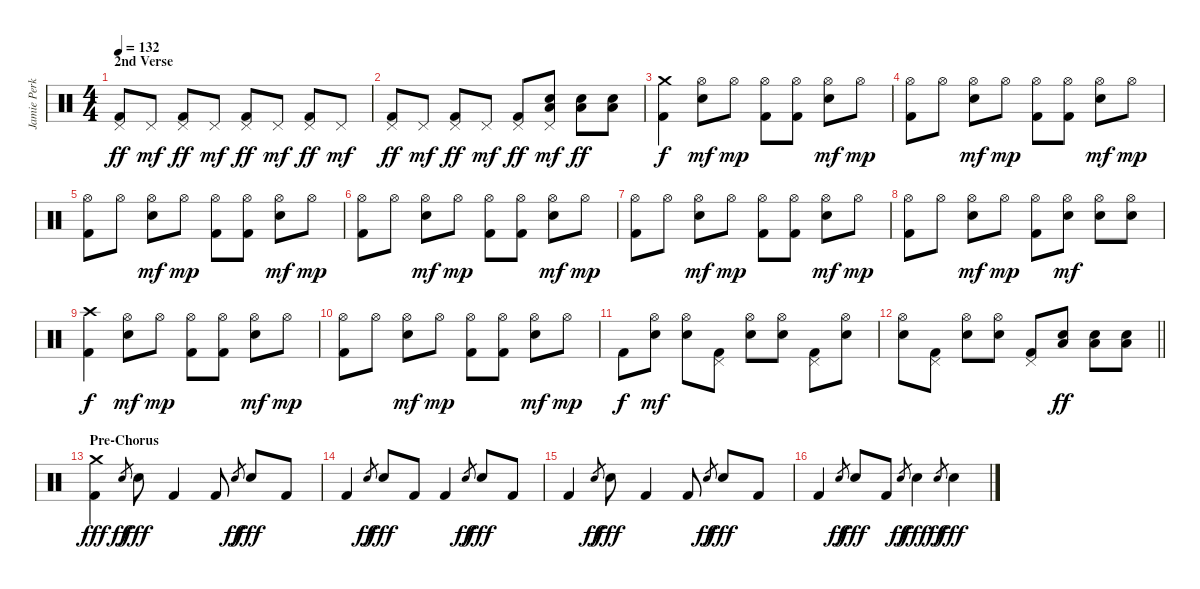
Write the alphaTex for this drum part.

\track ("Jamie Perkins" "Jamie Perk") {instrument percussion}
\staff {score}
\articulation defaults
\ts (4 4)
\section ("" "2nd Verse")
\tempo 132
\clef neutral
\ks c
("Pedal Hi-Hat (hit)" "Kick (hit) 2").8{dy ff} "Pedal Hi-Hat (hit)".8{dy mf} ("Pedal Hi-Hat (hit)" "Kick (hit) 2").8{dy ff} "Pedal Hi-Hat (hit)".8{dy mf} ("Pedal Hi-Hat (hit)" "Kick (hit) 2").8{dy ff} "Pedal Hi-Hat (hit)".8{dy mf} ("Pedal Hi-Hat (hit)" "Kick (hit) 2").8{dy ff} "Pedal Hi-Hat (hit)".8{dy mf} |
("Pedal Hi-Hat (hit)" "Kick (hit) 2").8{dy ff} "Pedal Hi-Hat (hit)".8{dy mf} ("Pedal Hi-Hat (hit)" "Kick (hit) 2").8{dy ff} "Pedal Hi-Hat (hit)".8{dy mf} ("Pedal Hi-Hat (hit)" "Kick (hit) 2").8{dy ff} ("Low Tom (hit)" "Snare (hit) 2" "Pedal Hi-Hat (hit)").8{dy mf} ("Low Tom (hit)" "Snare (hit) 2").8{dy ff} ("Low Tom (hit)" "Snare (hit) 2").8 |
("Crash medium (hit)" "Kick (hit) 2").4{dy f} ("Hi-Hat (open)" "Snare (hit) 2").8{dy mf} "Hi-Hat (open)".8{dy mp} ("Hi-Hat (open)" "Kick (hit) 2").8 ("Hi-Hat (open)" "Kick (hit) 2").8 ("Hi-Hat (open)" "Snare (hit) 2").8{dy mf} "Hi-Hat (open)".8{dy mp} |
("Hi-Hat (open)" "Kick (hit) 2").8 "Hi-Hat (open)".8 ("Hi-Hat (open)" "Snare (hit) 2").8{dy mf} "Hi-Hat (open)".8{dy mp} ("Hi-Hat (open)" "Kick (hit) 2").8 ("Hi-Hat (open)" "Kick (hit) 2").8 ("Hi-Hat (open)" "Snare (hit) 2").8{dy mf} "Hi-Hat (open)".8{dy mp} |
("Hi-Hat (open)" "Kick (hit) 2").8 "Hi-Hat (open)".8 ("Hi-Hat (open)" "Snare (hit) 2").8{dy mf} "Hi-Hat (open)".8{dy mp} ("Hi-Hat (open)" "Kick (hit) 2").8 ("Hi-Hat (open)" "Kick (hit) 2").8 ("Hi-Hat (open)" "Snare (hit) 2").8{dy mf} "Hi-Hat (open)".8{dy mp} |
("Hi-Hat (open)" "Kick (hit) 2").8 "Hi-Hat (open)".8 ("Hi-Hat (open)" "Snare (hit) 2").8{dy mf} "Hi-Hat (open)".8{dy mp} ("Hi-Hat (open)" "Kick (hit) 2").8 ("Hi-Hat (open)" "Kick (hit) 2").8 ("Hi-Hat (open)" "Snare (hit) 2").8{dy mf} "Hi-Hat (open)".8{dy mp} |
("Hi-Hat (open)" "Kick (hit) 2").8 "Hi-Hat (open)".8 ("Hi-Hat (open)" "Snare (hit) 2").8{dy mf} "Hi-Hat (open)".8{dy mp} ("Hi-Hat (open)" "Kick (hit) 2").8 ("Hi-Hat (open)" "Kick (hit) 2").8 ("Hi-Hat (open)" "Snare (hit) 2").8{dy mf} "Hi-Hat (open)".8{dy mp} |
("Hi-Hat (open)" "Kick (hit) 2").8 "Hi-Hat (open)".8 ("Hi-Hat (open)" "Snare (hit) 2").8{dy mf} "Hi-Hat (open)".8{dy mp} ("Hi-Hat (open)" "Kick (hit) 2").8 ("Hi-Hat (open)" "Snare (hit) 2").8{dy mf} ("Hi-Hat (open)" "Snare (hit) 2").8 ("Hi-Hat (open)" "Snare (hit) 2").8 |
("Crash high (hit)" "Kick (hit) 2").4{dy f} ("Hi-Hat (open)" "Snare (hit) 2").8{dy mf} "Hi-Hat (open)".8{dy mp} ("Hi-Hat (open)" "Kick (hit) 2").8 ("Hi-Hat (open)" "Kick (hit) 2").8 ("Hi-Hat (open)" "Snare (hit) 2").8{dy mf} "Hi-Hat (open)".8{dy mp} |
("Hi-Hat (open)" "Kick (hit) 2").8 "Hi-Hat (open)".8 ("Hi-Hat (open)" "Snare (hit) 2").8{dy mf} "Hi-Hat (open)".8{dy mp} ("Hi-Hat (open)" "Kick (hit) 2").8 ("Hi-Hat (open)" "Kick (hit) 2").8 ("Hi-Hat (open)" "Snare (hit) 2").8{dy mf} "Hi-Hat (open)".8{dy mp} |
"Kick (hit) 2".8{dy f} ("Hi-Hat (open)" "Snare (hit) 2").8{dy mf} ("Hi-Hat (open)" "Snare (hit) 2").8 ("Pedal Hi-Hat (hit)" "Kick (hit) 2").8 ("Hi-Hat (open)" "Snare (hit) 2").8 ("Hi-Hat (open)" "Snare (hit) 2").8 ("Pedal Hi-Hat (hit)" "Kick (hit) 2").8 ("Hi-Hat (open)" "Snare (hit) 2").8 |
\barLineRight lightlight
("Hi-Hat (open)" "Snare (hit) 2").8 ("Pedal Hi-Hat (hit)" "Kick (hit) 2").8 ("Hi-Hat (open)" "Snare (hit) 2").8 ("Hi-Hat (open)" "Snare (hit) 2").8 ("Pedal Hi-Hat (hit)" "Kick (hit) 2").8 ("Low Tom (hit)" "Snare (hit) 2").8{dy ff} ("Low Tom (hit)" "Snare (hit) 2").8 ("Low Tom (hit)" "Snare (hit) 2").8 |
\section ("" "Pre-Chorus")
("Crash medium (hit)" "Kick (hit) 2").4{dy fff} "Snare (hit) 2".8{gr dy ff} "Snare (hit) 2".8{dy fff} "Kick (hit) 2".4 "Kick (hit) 2".8 "Snare (hit) 2".8{gr dy ff} "Snare (hit) 2".8{dy fff} "Kick (hit) 2".8 |
"Kick (hit) 2".4 "Snare (hit) 2".8{gr dy ff} "Snare (hit) 2".8{dy fff} "Kick (hit) 2".8 "Kick (hit) 2".4 "Snare (hit) 2".8{gr dy ff} "Snare (hit) 2".8{dy fff} "Kick (hit) 2".8 |
"Kick (hit) 2".4 "Snare (hit) 2".8{gr dy ff} "Snare (hit) 2".8{dy fff} "Kick (hit) 2".4 "Kick (hit) 2".8 "Snare (hit) 2".8{gr dy ff} "Snare (hit) 2".8{dy fff} "Kick (hit) 2".8 |
"Kick (hit) 2".4 "Snare (hit) 2".8{gr dy ff} "Snare (hit) 2".8{dy fff} "Kick (hit) 2".8 "Snare (hit) 2".8{gr dy ff} "Snare (hit) 2".4{dy fff} "Snare (hit) 2".8{gr dy ff} "Snare (hit) 2".4{dy fff}
